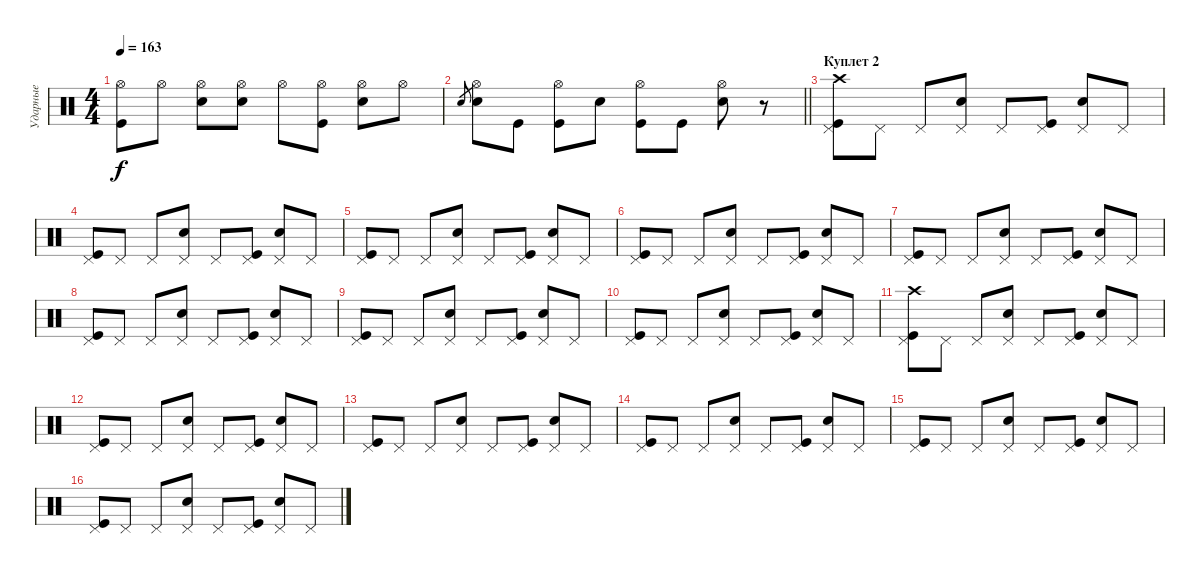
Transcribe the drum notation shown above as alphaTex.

\track ("Ударные" "Ударные") {instrument percussion}
\staff {score}
\articulation defaults
\ts (4 4)
\tempo 163
\clef neutral
\ks c
("Kick (hit)" "Hi-Hat (open)").8{dy f} "Hi-Hat (open)".8 ("Hi-Hat (open)" "Snare (hit) 2").8 ("Hi-Hat (open)" "Snare (hit) 2").8 "Hi-Hat (open)".8 ("Kick (hit)" "Hi-Hat (open)").8 ("Hi-Hat (open)" "Snare (hit) 2").8 "Hi-Hat (open)".8 |
\barLineRight lightlight "Snare (hit) 2".8{gr}
("Hi-Hat (open)" "Snare (hit) 2").8 "Kick (hit)".8 ("Kick (hit)" "Hi-Hat (open)").8 "Snare (hit) 2".8 ("Kick (hit)" "Hi-Hat (open)").8 "Kick (hit)".8 ("Hi-Hat (open)" "Snare (hit) 2").8 r.8 |
\section ("" "Куплет 2")
("Kick (hit)" "Pedal Hi-Hat (hit)" "Crash high (hit)").8 "Pedal Hi-Hat (hit)".8 "Pedal Hi-Hat (hit)".8 ("Pedal Hi-Hat (hit)" "Snare (hit) 2").8 "Pedal Hi-Hat (hit)".8 ("Kick (hit)" "Pedal Hi-Hat (hit)").8 ("Pedal Hi-Hat (hit)" "Snare (hit) 2").8 "Pedal Hi-Hat (hit)".8 |
("Kick (hit)" "Pedal Hi-Hat (hit)").8 "Pedal Hi-Hat (hit)".8 "Pedal Hi-Hat (hit)".8 ("Pedal Hi-Hat (hit)" "Snare (hit) 2").8 "Pedal Hi-Hat (hit)".8 ("Kick (hit)" "Pedal Hi-Hat (hit)").8 ("Pedal Hi-Hat (hit)" "Snare (hit) 2").8 "Pedal Hi-Hat (hit)".8 |
("Kick (hit)" "Pedal Hi-Hat (hit)").8 "Pedal Hi-Hat (hit)".8 "Pedal Hi-Hat (hit)".8 ("Pedal Hi-Hat (hit)" "Snare (hit) 2").8 "Pedal Hi-Hat (hit)".8 ("Kick (hit)" "Pedal Hi-Hat (hit)").8 ("Pedal Hi-Hat (hit)" "Snare (hit) 2").8 "Pedal Hi-Hat (hit)".8 |
("Kick (hit)" "Pedal Hi-Hat (hit)").8 "Pedal Hi-Hat (hit)".8 "Pedal Hi-Hat (hit)".8 ("Pedal Hi-Hat (hit)" "Snare (hit) 2").8 "Pedal Hi-Hat (hit)".8 ("Kick (hit)" "Pedal Hi-Hat (hit)").8 ("Pedal Hi-Hat (hit)" "Snare (hit) 2").8 "Pedal Hi-Hat (hit)".8 |
("Kick (hit)" "Pedal Hi-Hat (hit)").8 "Pedal Hi-Hat (hit)".8 "Pedal Hi-Hat (hit)".8 ("Pedal Hi-Hat (hit)" "Snare (hit) 2").8 "Pedal Hi-Hat (hit)".8 ("Kick (hit)" "Pedal Hi-Hat (hit)").8 ("Pedal Hi-Hat (hit)" "Snare (hit) 2").8 "Pedal Hi-Hat (hit)".8 |
("Kick (hit)" "Pedal Hi-Hat (hit)").8 "Pedal Hi-Hat (hit)".8 "Pedal Hi-Hat (hit)".8 ("Pedal Hi-Hat (hit)" "Snare (hit) 2").8 "Pedal Hi-Hat (hit)".8 ("Kick (hit)" "Pedal Hi-Hat (hit)").8 ("Pedal Hi-Hat (hit)" "Snare (hit) 2").8 "Pedal Hi-Hat (hit)".8 |
("Kick (hit)" "Pedal Hi-Hat (hit)").8 "Pedal Hi-Hat (hit)".8 "Pedal Hi-Hat (hit)".8 ("Pedal Hi-Hat (hit)" "Snare (hit) 2").8 "Pedal Hi-Hat (hit)".8 ("Kick (hit)" "Pedal Hi-Hat (hit)").8 ("Pedal Hi-Hat (hit)" "Snare (hit) 2").8 "Pedal Hi-Hat (hit)".8 |
("Kick (hit)" "Pedal Hi-Hat (hit)").8 "Pedal Hi-Hat (hit)".8 "Pedal Hi-Hat (hit)".8 ("Pedal Hi-Hat (hit)" "Snare (hit) 2").8 "Pedal Hi-Hat (hit)".8 ("Kick (hit)" "Pedal Hi-Hat (hit)").8 ("Pedal Hi-Hat (hit)" "Snare (hit) 2").8 "Pedal Hi-Hat (hit)".8 |
("Kick (hit)" "Pedal Hi-Hat (hit)" "Crash high (hit)").8 "Pedal Hi-Hat (hit)".8 "Pedal Hi-Hat (hit)".8 ("Pedal Hi-Hat (hit)" "Snare (hit) 2").8 "Pedal Hi-Hat (hit)".8 ("Kick (hit)" "Pedal Hi-Hat (hit)").8 ("Pedal Hi-Hat (hit)" "Snare (hit) 2").8 "Pedal Hi-Hat (hit)".8 |
("Kick (hit)" "Pedal Hi-Hat (hit)").8 "Pedal Hi-Hat (hit)".8 "Pedal Hi-Hat (hit)".8 ("Pedal Hi-Hat (hit)" "Snare (hit) 2").8 "Pedal Hi-Hat (hit)".8 ("Kick (hit)" "Pedal Hi-Hat (hit)").8 ("Pedal Hi-Hat (hit)" "Snare (hit) 2").8 "Pedal Hi-Hat (hit)".8 |
("Kick (hit)" "Pedal Hi-Hat (hit)").8 "Pedal Hi-Hat (hit)".8 "Pedal Hi-Hat (hit)".8 ("Pedal Hi-Hat (hit)" "Snare (hit) 2").8 "Pedal Hi-Hat (hit)".8 ("Kick (hit)" "Pedal Hi-Hat (hit)").8 ("Pedal Hi-Hat (hit)" "Snare (hit) 2").8 "Pedal Hi-Hat (hit)".8 |
("Kick (hit)" "Pedal Hi-Hat (hit)").8 "Pedal Hi-Hat (hit)".8 "Pedal Hi-Hat (hit)".8 ("Pedal Hi-Hat (hit)" "Snare (hit) 2").8 "Pedal Hi-Hat (hit)".8 ("Kick (hit)" "Pedal Hi-Hat (hit)").8 ("Pedal Hi-Hat (hit)" "Snare (hit) 2").8 "Pedal Hi-Hat (hit)".8 |
("Kick (hit)" "Pedal Hi-Hat (hit)").8 "Pedal Hi-Hat (hit)".8 "Pedal Hi-Hat (hit)".8 ("Pedal Hi-Hat (hit)" "Snare (hit) 2").8 "Pedal Hi-Hat (hit)".8 ("Kick (hit)" "Pedal Hi-Hat (hit)").8 ("Pedal Hi-Hat (hit)" "Snare (hit) 2").8 "Pedal Hi-Hat (hit)".8 |
("Kick (hit)" "Pedal Hi-Hat (hit)").8 "Pedal Hi-Hat (hit)".8 "Pedal Hi-Hat (hit)".8 ("Pedal Hi-Hat (hit)" "Snare (hit) 2").8 "Pedal Hi-Hat (hit)".8 ("Kick (hit)" "Pedal Hi-Hat (hit)").8 ("Pedal Hi-Hat (hit)" "Snare (hit) 2").8 "Pedal Hi-Hat (hit)".8
